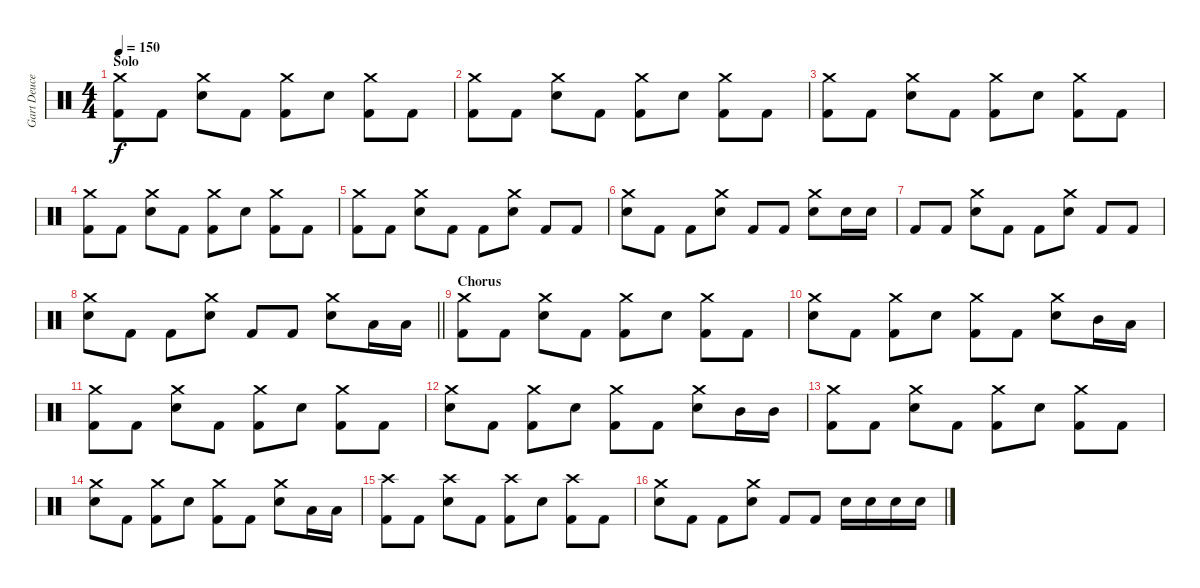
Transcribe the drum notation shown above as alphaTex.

\track ("Gart Deuce" "Gart Deuce") {instrument percussion}
\staff {score}
\articulation defaults
\ts (4 4)
\section ("" "Solo")
\tempo 150
\clef neutral
\ks c
("Crash medium (hit)" "Kick (hit) 2").8{dy f} "Kick (hit) 2".8 ("Crash medium (hit)" "Snare (hit) 2").8 "Kick (hit) 2".8 ("Crash medium (hit)" "Kick (hit) 2").8 "Snare (hit) 2".8 ("Crash medium (hit)" "Kick (hit) 2").8 "Kick (hit) 2".8 |
("Crash medium (hit)" "Kick (hit) 2").8 "Kick (hit) 2".8 ("Crash medium (hit)" "Snare (hit) 2").8 "Kick (hit) 2".8 ("Crash medium (hit)" "Kick (hit) 2").8 "Snare (hit) 2".8 ("Crash medium (hit)" "Kick (hit) 2").8 "Kick (hit) 2".8 |
("Crash medium (hit)" "Kick (hit) 2").8 "Kick (hit) 2".8 ("Crash medium (hit)" "Snare (hit) 2").8 "Kick (hit) 2".8 ("Crash medium (hit)" "Kick (hit) 2").8 "Snare (hit) 2".8 ("Crash medium (hit)" "Kick (hit) 2").8 "Kick (hit) 2".8 |
("Crash medium (hit)" "Kick (hit) 2").8 "Kick (hit) 2".8 ("Crash medium (hit)" "Snare (hit) 2").8 "Kick (hit) 2".8 ("Crash medium (hit)" "Kick (hit) 2").8 "Snare (hit) 2".8 ("Crash medium (hit)" "Kick (hit) 2").8 "Kick (hit) 2".8 |
("Crash medium (hit)" "Kick (hit) 2").8 "Kick (hit) 2".8 ("Crash medium (hit)" "Snare (hit) 2").8 "Kick (hit) 2".8 "Kick (hit) 2".8 ("Crash medium (hit)" "Snare (hit) 2").8 "Kick (hit) 2".8 "Kick (hit) 2".8 |
("Crash medium (hit)" "Snare (hit) 2").8 "Kick (hit) 2".8 "Kick (hit) 2".8 ("Crash medium (hit)" "Snare (hit) 2").8 "Kick (hit) 2".8 "Kick (hit) 2".8 ("Crash medium (hit)" "Snare (hit) 2").8 "Snare (hit) 2".16 "Snare (hit) 2".16 |
"Kick (hit) 2".8 "Kick (hit) 2".8 ("Crash medium (hit)" "Snare (hit) 2").8 "Kick (hit) 2".8 "Kick (hit) 2".8 ("Crash medium (hit)" "Snare (hit) 2").8 "Kick (hit) 2".8 "Kick (hit) 2".8 |
\barLineRight lightlight
("Crash medium (hit)" "Snare (hit) 2").8 "Kick (hit) 2".8 "Kick (hit) 2".8 ("Crash medium (hit)" "Snare (hit) 2").8 "Kick (hit) 2".8 "Kick (hit) 2".8 ("Crash medium (hit)" "Snare (hit) 2").8 "Low Tom (hit)".16 "Low Tom (hit)".16 |
\section ("" "Chorus")
("Crash medium (hit)" "Kick (hit) 2").8 "Kick (hit) 2".8 ("Crash medium (hit)" "Snare (hit) 2").8 "Kick (hit) 2".8 ("Crash medium (hit)" "Kick (hit) 2").8 "Snare (hit) 2".8 ("Crash medium (hit)" "Kick (hit) 2").8 "Kick (hit) 2".8 |
("Crash medium (hit)" "Snare (hit) 2").8 "Kick (hit) 2".8 ("Crash medium (hit)" "Kick (hit) 2").8 "Snare (hit) 2".8 ("Crash medium (hit)" "Kick (hit) 2").8 "Kick (hit) 2".8 ("Crash medium (hit)" "Snare (hit) 2").8 "Mid Tom (hit)".16 "Low Tom (hit)".16 |
("Crash medium (hit)" "Kick (hit) 2").8 "Kick (hit) 2".8 ("Crash medium (hit)" "Snare (hit) 2").8 "Kick (hit) 2".8 ("Crash medium (hit)" "Kick (hit) 2").8 "Snare (hit) 2".8 ("Crash medium (hit)" "Kick (hit) 2").8 "Kick (hit) 2".8 |
("Crash medium (hit)" "Snare (hit) 2").8 "Kick (hit) 2".8 ("Crash medium (hit)" "Kick (hit) 2").8 "Snare (hit) 2".8 ("Crash medium (hit)" "Kick (hit) 2").8 "Kick (hit) 2".8 ("Crash medium (hit)" "Snare (hit) 2").8 "Mid Tom (hit)".16 "Mid Tom (hit)".16 |
("Crash medium (hit)" "Kick (hit) 2").8 "Kick (hit) 2".8 ("Crash medium (hit)" "Snare (hit) 2").8 "Kick (hit) 2".8 ("Crash medium (hit)" "Kick (hit) 2").8 "Snare (hit) 2".8 ("Crash medium (hit)" "Kick (hit) 2").8 "Kick (hit) 2".8 |
("Crash medium (hit)" "Snare (hit) 2").8 "Kick (hit) 2".8 ("Crash medium (hit)" "Kick (hit) 2").8 "Snare (hit) 2".8 ("Crash medium (hit)" "Kick (hit) 2").8 "Kick (hit) 2".8 ("Crash medium (hit)" "Snare (hit) 2").8 "Low Tom (hit)".16 "Low Tom (hit)".16 |
("Crash high (hit)" "Kick (hit) 2").8 "Kick (hit) 2".8 ("Crash high (hit)" "Snare (hit) 2").8 "Kick (hit) 2".8 ("Crash high (hit)" "Kick (hit) 2").8 "Snare (hit) 2".8 ("Crash high (hit)" "Kick (hit) 2").8 "Kick (hit) 2".8 |
("Crash medium (hit)" "Snare (hit) 2").8 "Kick (hit) 2".8 "Kick (hit) 2".8 ("Crash medium (hit)" "Snare (hit) 2").8 "Kick (hit) 2".8 "Kick (hit) 2".8 "Snare (hit) 2".16 "Snare (hit) 2".16 "Snare (hit) 2".16 "Snare (hit) 2".16
